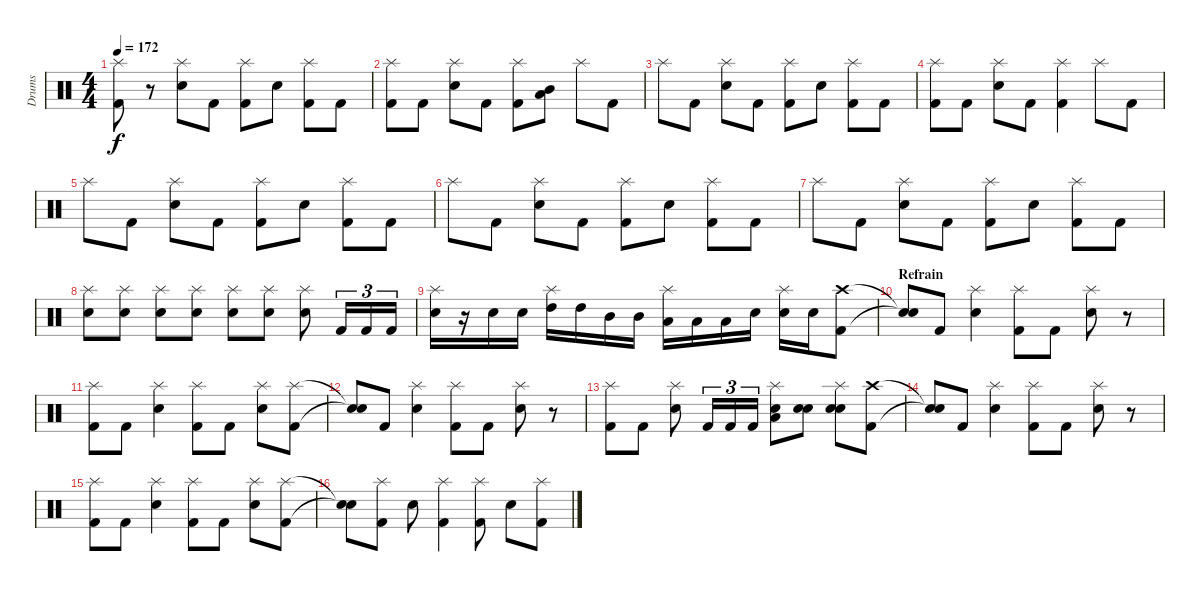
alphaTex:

\track ("Drums" "Drums") {instrument percussion}
\staff {score}
\articulation defaults
\ts (4 4)
\tempo 172
\clef neutral
\ks c
("Splash (hit)" "Kick (hit) 2").8{dy f} r.8 ("Splash (hit)" "Electric Snare (hit)").8 "Kick (hit) 2".8 ("Splash (hit)" "Kick (hit) 2").8 "Electric Snare (hit)".8 ("Splash (hit)" "Kick (hit) 2").8 "Kick (hit) 2".8 |
("Splash (hit)" "Kick (hit) 2").8 "Kick (hit) 2".8 ("Splash (hit)" "Electric Snare (hit)").8 "Kick (hit) 2".8 ("Splash (hit)" "Kick (hit) 2").8 ("Mid Tom (hit)" "Low Tom (hit)").8 "Splash (hit)".8 "Kick (hit) 2".8 |
"Splash (hit)".8 "Kick (hit) 2".8 ("Splash (hit)" "Electric Snare (hit)").8 "Kick (hit) 2".8 ("Splash (hit)" "Kick (hit) 2").8 "Electric Snare (hit)".8 ("Splash (hit)" "Kick (hit) 2").8 "Kick (hit) 2".8 |
("Splash (hit)" "Kick (hit) 2").8 "Kick (hit) 2".8 ("Splash (hit)" "Electric Snare (hit)").8 "Kick (hit) 2".8 ("Splash (hit)" "Kick (hit) 2").4 "Splash (hit)".8 "Kick (hit) 2".8 |
"Splash (hit)".8 "Kick (hit) 2".8 ("Splash (hit)" "Electric Snare (hit)").8 "Kick (hit) 2".8 ("Splash (hit)" "Kick (hit) 2").8 "Electric Snare (hit)".8 ("Splash (hit)" "Kick (hit) 2").8 "Kick (hit) 2".8 |
"Splash (hit)".8 "Kick (hit) 2".8 ("Splash (hit)" "Electric Snare (hit)").8 "Kick (hit) 2".8 ("Splash (hit)" "Kick (hit) 2").8 "Electric Snare (hit)".8 ("Splash (hit)" "Kick (hit) 2").8 "Kick (hit) 2".8 |
"Splash (hit)".8 "Kick (hit) 2".8 ("Splash (hit)" "Electric Snare (hit)").8 "Kick (hit) 2".8 ("Splash (hit)" "Kick (hit) 2").8 "Electric Snare (hit)".8 ("Splash (hit)" "Kick (hit) 2").8 "Kick (hit) 2".8 |
("Splash (hit)" "Electric Snare (hit)").8 ("Splash (hit)" "Electric Snare (hit)").8 ("Splash (hit)" "Electric Snare (hit)").8 ("Splash (hit)" "Electric Snare (hit)").8 ("Splash (hit)" "Electric Snare (hit)").8 ("Splash (hit)" "Electric Snare (hit)").8 ("Splash (hit)" "Electric Snare (hit)").8 "Kick (hit) 2".16{tu (3 2)} "Kick (hit) 2".16{tu (3 2)} "Kick (hit) 2".16{tu (3 2)} |
("Splash (hit)" "Electric Snare (hit)").16 r.16 "Electric Snare (hit)".16 "Electric Snare (hit)".16 ("Splash (hit)" "High Tom (hit)").16 "High Tom (hit)".16 "Mid Tom (hit)".16 "Mid Tom (hit)".16 ("Splash (hit)" "Low Tom (hit)").16 "Low Tom (hit)".16 "Low Tom (hit)".16 "Electric Snare (hit)".16 ("Splash (hit)" "Electric Snare (hit)").16 "Electric Snare (hit)".16 ("Crash high (hit)" "Kick (hit) 2").8 |
\section ("" "Refrain")
("Snare (hit)"{t} "Snare (hit)"{t}).8 "Kick (hit) 2".8 ("Splash (hit)" "Electric Snare (hit)").4 ("Splash (hit)" "Kick (hit) 2").8 "Kick (hit) 2".8 ("Splash (hit)" "Electric Snare (hit)").8 r.8 |
("Splash (hit)" "Kick (hit) 2").8 "Kick (hit) 2".8 ("Splash (hit)" "Electric Snare (hit)").4 ("Splash (hit)" "Kick (hit) 2").8 "Kick (hit) 2".8 ("Splash (hit)" "Electric Snare (hit)").8 ("Splash (hit)" "Kick (hit) 2").8 |
("Snare (hit)"{t} "Snare (hit)"{t}).8 "Kick (hit) 2".8 ("Splash (hit)" "Electric Snare (hit)").4 ("Splash (hit)" "Kick (hit) 2").8 "Kick (hit) 2".8 ("Splash (hit)" "Electric Snare (hit)").8 r.8 |
("Splash (hit)" "Kick (hit) 2").8 "Kick (hit) 2".8 ("Splash (hit)" "Electric Snare (hit)").8 "Kick (hit) 2".16{tu (3 2)} "Kick (hit) 2".16{tu (3 2)} "Kick (hit) 2".16{tu (3 2)} ("Splash (hit)" "Low Tom (hit)" "Electric Snare (hit)").8 ("Electric Snare (hit)" "Electric Snare (hit)").8 ("Splash (hit)" "Electric Snare (hit)" "Electric Snare (hit)").8 ("Crash high (hit)" "Kick (hit) 2").8 |
("Snare (hit)"{t} "Snare (hit)"{t}).8 "Kick (hit) 2".8 ("Splash (hit)" "Electric Snare (hit)").4 ("Splash (hit)" "Kick (hit) 2").8 "Kick (hit) 2".8 ("Splash (hit)" "Electric Snare (hit)").8 r.8 |
("Splash (hit)" "Kick (hit) 2").8 "Kick (hit) 2".8 ("Splash (hit)" "Electric Snare (hit)").4 ("Splash (hit)" "Kick (hit) 2").8 "Kick (hit) 2".8 ("Splash (hit)" "Electric Snare (hit)").8 ("Splash (hit)" "Kick (hit) 2").8 |
("Snare (hit)"{t} "Snare (hit)"{t}).8 ("Splash (hit)" "Kick (hit) 2").8 "Electric Snare (hit)".8 ("Splash (hit)" "Kick (hit) 2").4 ("Splash (hit)" "Kick (hit) 2").8 "Electric Snare (hit)".8 ("Splash (hit)" "Kick (hit) 2").8
